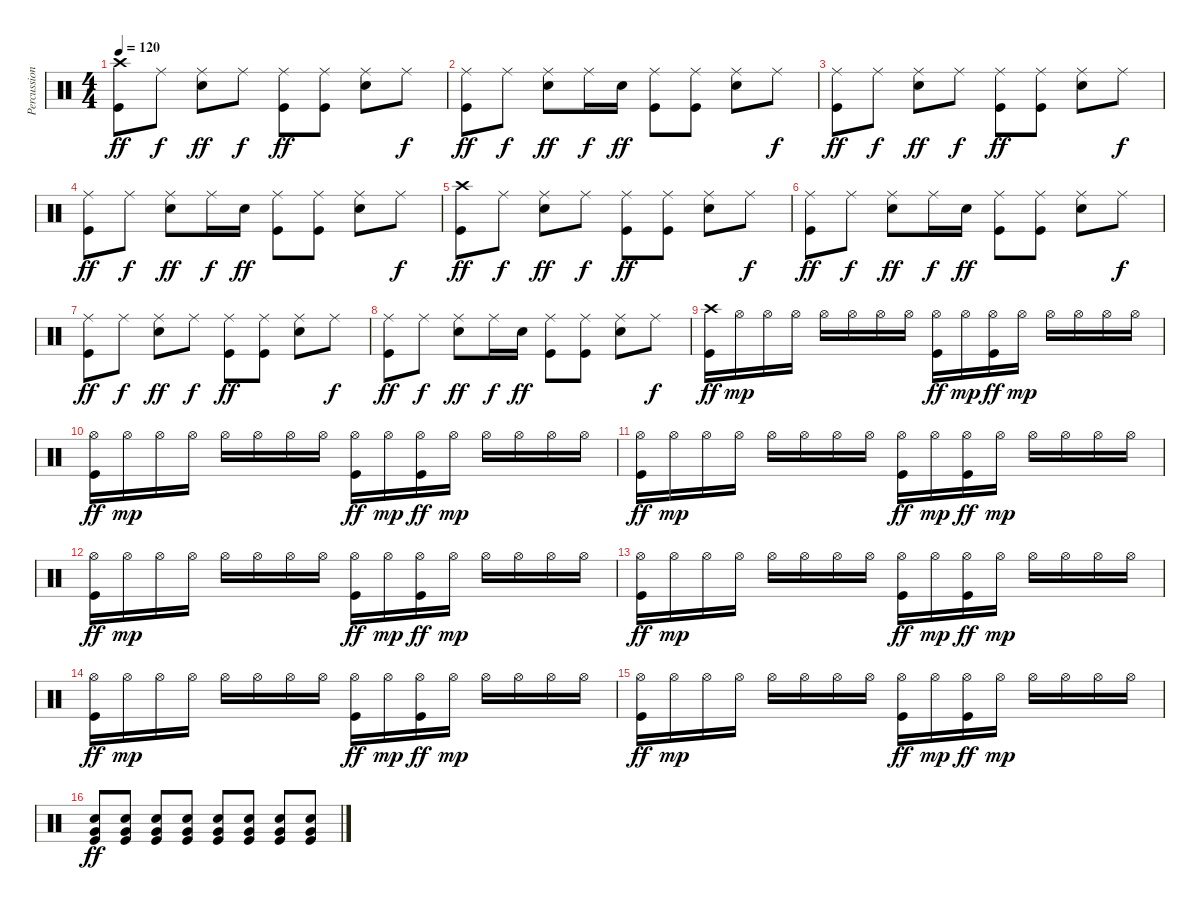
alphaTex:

\track ("Percussion" "Percussion") {instrument percussion}
\staff {score}
\articulation defaults
\ts (4 4)
\tempo 120
\clef neutral
\ks c
("Crash high (hit)" "Kick (hit)").8{dy ff} "Ride (middle)".8{dy f} ("Ride (middle)" "Snare (hit) 2").8{dy ff} "Ride (middle)".8{dy f} ("Ride (middle)" "Kick (hit)").8{dy ff} ("Ride (middle)" "Kick (hit)").8 ("Ride (middle)" "Snare (hit) 2").8 "Ride (middle)".8{dy f} |
("Ride (middle)" "Kick (hit)").8{dy ff} "Ride (middle)".8{dy f} ("Ride (middle)" "Snare (hit) 2").8{dy ff} "Ride (middle)".16{dy f} "Snare (hit) 2".16{dy ff} ("Ride (middle)" "Kick (hit)").8 ("Ride (middle)" "Kick (hit)").8 ("Ride (middle)" "Snare (hit) 2").8 "Ride (middle)".8{dy f} |
("Ride (middle)" "Kick (hit)").8{dy ff} "Ride (middle)".8{dy f} ("Ride (middle)" "Snare (hit) 2").8{dy ff} "Ride (middle)".8{dy f} ("Ride (middle)" "Kick (hit)").8{dy ff} ("Ride (middle)" "Kick (hit)").8 ("Ride (middle)" "Snare (hit) 2").8 "Ride (middle)".8{dy f} |
("Ride (middle)" "Kick (hit)").8{dy ff} "Ride (middle)".8{dy f} ("Ride (middle)" "Snare (hit) 2").8{dy ff} "Ride (middle)".16{dy f} "Snare (hit) 2".16{dy ff} ("Ride (middle)" "Kick (hit)").8 ("Ride (middle)" "Kick (hit)").8 ("Ride (middle)" "Snare (hit) 2").8 "Ride (middle)".8{dy f} |
("Crash high (hit)" "Kick (hit)").8{dy ff} "Ride (middle)".8{dy f} ("Ride (middle)" "Snare (hit) 2").8{dy ff} "Ride (middle)".8{dy f} ("Ride (middle)" "Kick (hit)").8{dy ff} ("Ride (middle)" "Kick (hit)").8 ("Ride (middle)" "Snare (hit) 2").8 "Ride (middle)".8{dy f} |
("Ride (middle)" "Kick (hit)").8{dy ff} "Ride (middle)".8{dy f} ("Ride (middle)" "Snare (hit) 2").8{dy ff} "Ride (middle)".16{dy f} "Snare (hit) 2".16{dy ff} ("Ride (middle)" "Kick (hit)").8 ("Ride (middle)" "Kick (hit)").8 ("Ride (middle)" "Snare (hit) 2").8 "Ride (middle)".8{dy f} |
("Ride (middle)" "Kick (hit)").8{dy ff} "Ride (middle)".8{dy f} ("Ride (middle)" "Snare (hit) 2").8{dy ff} "Ride (middle)".8{dy f} ("Ride (middle)" "Kick (hit)").8{dy ff} ("Ride (middle)" "Kick (hit)").8 ("Ride (middle)" "Snare (hit) 2").8 "Ride (middle)".8{dy f} |
("Ride (middle)" "Kick (hit)").8{dy ff} "Ride (middle)".8{dy f} ("Ride (middle)" "Snare (hit) 2").8{dy ff} "Ride (middle)".16{dy f} "Snare (hit) 2".16{dy ff} ("Ride (middle)" "Kick (hit)").8 ("Ride (middle)" "Kick (hit)").8 ("Ride (middle)" "Snare (hit) 2").8 "Ride (middle)".8{dy f} |
("Crash high (hit)" "Kick (hit)").16{dy ff} "Hi-Hat (open)".16{dy mp} "Hi-Hat (open)".16 "Hi-Hat (open)".16 "Hi-Hat (open)".16 "Hi-Hat (open)".16 "Hi-Hat (open)".16 "Hi-Hat (open)".16 ("Hi-Hat (open)" "Kick (hit)").16{dy ff} "Hi-Hat (open)".16{dy mp} ("Hi-Hat (open)" "Kick (hit)").16{dy ff} "Hi-Hat (open)".16{dy mp} "Hi-Hat (open)".16 "Hi-Hat (open)".16 "Hi-Hat (open)".16 "Hi-Hat (open)".16 |
("Hi-Hat (open)" "Kick (hit)").16{dy ff} "Hi-Hat (open)".16{dy mp} "Hi-Hat (open)".16 "Hi-Hat (open)".16 "Hi-Hat (open)".16 "Hi-Hat (open)".16 "Hi-Hat (open)".16 "Hi-Hat (open)".16 ("Hi-Hat (open)" "Kick (hit)").16{dy ff} "Hi-Hat (open)".16{dy mp} ("Hi-Hat (open)" "Kick (hit)").16{dy ff} "Hi-Hat (open)".16{dy mp} "Hi-Hat (open)".16 "Hi-Hat (open)".16 "Hi-Hat (open)".16 "Hi-Hat (open)".16 |
("Hi-Hat (open)" "Kick (hit)").16{dy ff} "Hi-Hat (open)".16{dy mp} "Hi-Hat (open)".16 "Hi-Hat (open)".16 "Hi-Hat (open)".16 "Hi-Hat (open)".16 "Hi-Hat (open)".16 "Hi-Hat (open)".16 ("Hi-Hat (open)" "Kick (hit)").16{dy ff} "Hi-Hat (open)".16{dy mp} ("Hi-Hat (open)" "Kick (hit)").16{dy ff} "Hi-Hat (open)".16{dy mp} "Hi-Hat (open)".16 "Hi-Hat (open)".16 "Hi-Hat (open)".16 "Hi-Hat (open)".16 |
("Hi-Hat (open)" "Kick (hit)").16{dy ff} "Hi-Hat (open)".16{dy mp} "Hi-Hat (open)".16 "Hi-Hat (open)".16 "Hi-Hat (open)".16 "Hi-Hat (open)".16 "Hi-Hat (open)".16 "Hi-Hat (open)".16 ("Hi-Hat (open)" "Kick (hit)").16{dy ff} "Hi-Hat (open)".16{dy mp} ("Hi-Hat (open)" "Kick (hit)").16{dy ff} "Hi-Hat (open)".16{dy mp} "Hi-Hat (open)".16 "Hi-Hat (open)".16 "Hi-Hat (open)".16 "Hi-Hat (open)".16 |
("Hi-Hat (open)" "Kick (hit)").16{dy ff} "Hi-Hat (open)".16{dy mp} "Hi-Hat (open)".16 "Hi-Hat (open)".16 "Hi-Hat (open)".16 "Hi-Hat (open)".16 "Hi-Hat (open)".16 "Hi-Hat (open)".16 ("Hi-Hat (open)" "Kick (hit)").16{dy ff} "Hi-Hat (open)".16{dy mp} ("Hi-Hat (open)" "Kick (hit)").16{dy ff} "Hi-Hat (open)".16{dy mp} "Hi-Hat (open)".16 "Hi-Hat (open)".16 "Hi-Hat (open)".16 "Hi-Hat (open)".16 |
("Hi-Hat (open)" "Kick (hit)").16{dy ff} "Hi-Hat (open)".16{dy mp} "Hi-Hat (open)".16 "Hi-Hat (open)".16 "Hi-Hat (open)".16 "Hi-Hat (open)".16 "Hi-Hat (open)".16 "Hi-Hat (open)".16 ("Hi-Hat (open)" "Kick (hit)").16{dy ff} "Hi-Hat (open)".16{dy mp} ("Hi-Hat (open)" "Kick (hit)").16{dy ff} "Hi-Hat (open)".16{dy mp} "Hi-Hat (open)".16 "Hi-Hat (open)".16 "Hi-Hat (open)".16 "Hi-Hat (open)".16 |
("Hi-Hat (open)" "Kick (hit)").16{dy ff} "Hi-Hat (open)".16{dy mp} "Hi-Hat (open)".16 "Hi-Hat (open)".16 "Hi-Hat (open)".16 "Hi-Hat (open)".16 "Hi-Hat (open)".16 "Hi-Hat (open)".16 ("Hi-Hat (open)" "Kick (hit)").16{dy ff} "Hi-Hat (open)".16{dy mp} ("Hi-Hat (open)" "Kick (hit)").16{dy ff} "Hi-Hat (open)".16{dy mp} "Hi-Hat (open)".16 "Hi-Hat (open)".16 "Hi-Hat (open)".16 "Hi-Hat (open)".16 |
("Snare (hit) 2" "Very Low Tom (hit)" "Kick (hit)").8{dy ff} ("Snare (hit) 2" "Very Low Tom (hit)" "Kick (hit)").8 ("Snare (hit) 2" "Very Low Tom (hit)" "Kick (hit)").8 ("Snare (hit) 2" "Very Low Tom (hit)" "Kick (hit)").8 ("Snare (hit) 2" "Very Low Tom (hit)" "Kick (hit)").8 ("Snare (hit) 2" "Very Low Tom (hit)" "Kick (hit)").8 ("Snare (hit) 2" "Very Low Tom (hit)" "Kick (hit)").8 ("Snare (hit) 2" "Very Low Tom (hit)" "Kick (hit)").8
